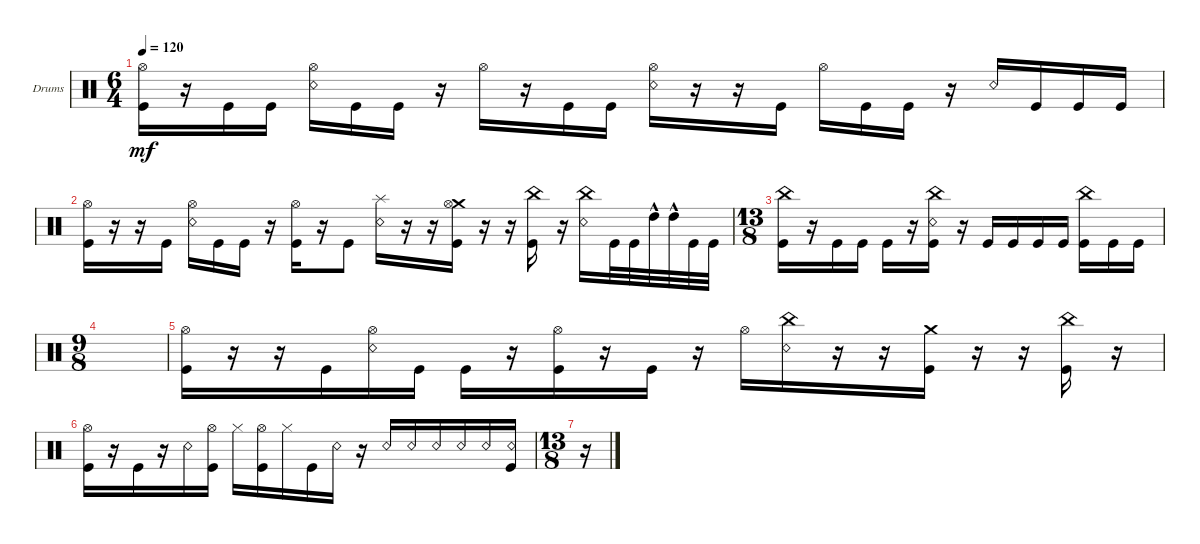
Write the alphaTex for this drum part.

\defaultSystemsLayout 4
\bracketExtendMode groupsimilarinstruments
\firstSystemTrackNameOrientation horizontal
\otherSystemsTrackNameOrientation horizontal
\track ("Drumkit" "Drums") {instrument percussion}
\staff {score}
\articulation defaults
\ts (6 4)
\tempo 120
\clef neutral
\ks c
("Kick (hit)" "Hi-Hat (open)").16{dy mf} r.16 "Kick (hit)".16 "Kick (hit)".16 ("Snare (rim shot)" "Hi-Hat (open)").16 "Kick (hit)".16 "Kick (hit)".16 r.16 "Hi-Hat (open)".16 r.16 "Kick (hit)".16 "Kick (hit)".16 ("Snare (rim shot)" "Hi-Hat (open)").16 r.16 r.16 "Kick (hit)".16 "Hi-Hat (open)".16 "Kick (hit)".16 "Kick (hit)".16 r.16 "Snare (rim shot)".16 "Kick (hit)".16 "Kick (hit)".16 "Kick (hit)".16 |
("Kick (hit)" "Hi-Hat (open)").16 r.16 r.16 "Kick (hit)".16 ("Snare (rim shot)" "Hi-Hat (open)").16 "Kick (hit)".16 "Kick (hit)".16 r.16 ("Hi-Hat (open)" "Kick (hit)").16 r.16 "Kick (hit)".8 ("Snare (rim shot)" "Splash (hit)").16 r.16 r.16 ("Kick (hit)" "Crash medium (hit)" "Hi-Hat (open)").16 r.16 r.16 ("China (hit)" "Kick (hit)").16 r.16 ("Snare (rim shot)" "China (hit)").16 "Kick (hit)".32 "Kick (hit)".32 "High Tom (hit)"{hac}.32 "High Tom (hit)"{hac}.32 "Kick (hit)".32 "Kick (hit)".32 |
\ts (13 8)
("China (hit)" "Kick (hit)").16 r.16 "Kick (hit)".16 "Kick (hit)".16 "Kick (hit)".16 r.16 ("Kick (hit)" "Snare (rim shot)" "China (hit)").16 r.16 "Kick (hit)".16 "Kick (hit)".16 "Kick (hit)".16 "Kick (hit)".16 ("Kick (hit)" "China (hit)").16 "Kick (hit)".16 "Kick (hit)".16 |
\ts (9 8)
|
("Kick (hit)" "Hi-Hat (open)").16 r.16 r.16 "Kick (hit)".16 ("Snare (rim shot)" "Hi-Hat (open)").16 "Kick (hit)".16 "Kick (hit)".16 r.16 ("Hi-Hat (open)" "Kick (hit)").16 r.16 "Kick (hit)".16 r.16 "Hi-Hat (open)".16 ("China (hit)" "Snare (rim shot)").16 r.16 r.16 ("Kick (hit)" "Crash medium (hit)").16 r.16 r.16 ("China (hit)" "Kick (hit)").16 r.16 |
("Hi-Hat (open)" "Kick (hit)").16 r.16 "Kick (hit)".16 r.16 "Snare (rim shot)".16 ("Kick (hit)" "Hi-Hat (open)").16 "Hi-Hat (closed)".16 ("Kick (hit)" "Hi-Hat (open)").16 "Hi-Hat (closed)".16 "Kick (hit)".16 "Snare (rim shot)".16 r.16 "Snare (rim shot)".16 "Snare (rim shot)".16 "Snare (rim shot)".16 "Snare (rim shot)".16 "Snare (rim shot)".16 ("Snare (rim shot)" "Kick (hit)").16 |
\ts (13 8)
r.16
